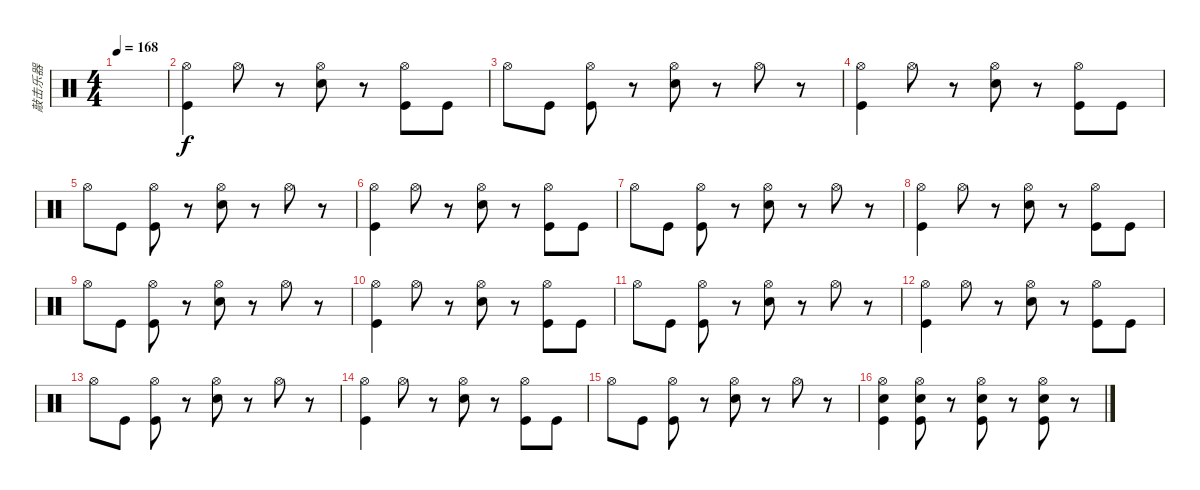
\track ("敲击乐器" "敲击乐器") {instrument percussion}
\staff {score}
\articulation defaults
\ts (4 4)
\tempo 168
\clef neutral
\ks c
|
("Hi-Hat (open)" "Kick (hit)").4 "Hi-Hat (open)".8 r.8 ("Hi-Hat (open)" "Snare (hit) 2").8 r.8 ("Hi-Hat (open)" "Kick (hit)").8 "Kick (hit)".8 |
"Hi-Hat (open)".8 "Kick (hit)".8 ("Hi-Hat (open)" "Kick (hit)").8 r.8 ("Hi-Hat (open)" "Snare (hit) 2").8 r.8 "Hi-Hat (open)".8 r.8 |
("Hi-Hat (open)" "Kick (hit)").4 "Hi-Hat (open)".8 r.8 ("Hi-Hat (open)" "Snare (hit) 2").8 r.8 ("Hi-Hat (open)" "Kick (hit)").8 "Kick (hit)".8 |
"Hi-Hat (open)".8 "Kick (hit)".8 ("Hi-Hat (open)" "Kick (hit)").8 r.8 ("Hi-Hat (open)" "Snare (hit) 2").8 r.8 "Hi-Hat (open)".8 r.8 |
("Hi-Hat (open)" "Kick (hit)").4 "Hi-Hat (open)".8 r.8 ("Hi-Hat (open)" "Snare (hit) 2").8 r.8 ("Hi-Hat (open)" "Kick (hit)").8 "Kick (hit)".8 |
"Hi-Hat (open)".8 "Kick (hit)".8 ("Hi-Hat (open)" "Kick (hit)").8 r.8 ("Hi-Hat (open)" "Snare (hit) 2").8 r.8 "Hi-Hat (open)".8 r.8 |
("Hi-Hat (open)" "Kick (hit)").4 "Hi-Hat (open)".8 r.8 ("Hi-Hat (open)" "Snare (hit) 2").8 r.8 ("Hi-Hat (open)" "Kick (hit)").8 "Kick (hit)".8 |
"Hi-Hat (open)".8 "Kick (hit)".8 ("Hi-Hat (open)" "Kick (hit)").8 r.8 ("Hi-Hat (open)" "Snare (hit) 2").8 r.8 "Hi-Hat (open)".8 r.8 |
("Hi-Hat (open)" "Kick (hit)").4 "Hi-Hat (open)".8 r.8 ("Hi-Hat (open)" "Snare (hit) 2").8 r.8 ("Hi-Hat (open)" "Kick (hit)").8 "Kick (hit)".8 |
"Hi-Hat (open)".8 "Kick (hit)".8 ("Hi-Hat (open)" "Kick (hit)").8 r.8 ("Hi-Hat (open)" "Snare (hit) 2").8 r.8 "Hi-Hat (open)".8 r.8 |
("Hi-Hat (open)" "Kick (hit)").4 "Hi-Hat (open)".8 r.8 ("Hi-Hat (open)" "Snare (hit) 2").8 r.8 ("Hi-Hat (open)" "Kick (hit)").8 "Kick (hit)".8 |
"Hi-Hat (open)".8 "Kick (hit)".8 ("Hi-Hat (open)" "Kick (hit)").8 r.8 ("Hi-Hat (open)" "Snare (hit) 2").8 r.8 "Hi-Hat (open)".8 r.8 |
("Hi-Hat (open)" "Kick (hit)").4 "Hi-Hat (open)".8 r.8 ("Hi-Hat (open)" "Snare (hit) 2").8 r.8 ("Hi-Hat (open)" "Kick (hit)").8 "Kick (hit)".8 |
"Hi-Hat (open)".8 "Kick (hit)".8 ("Hi-Hat (open)" "Kick (hit)").8 r.8 ("Hi-Hat (open)" "Snare (hit) 2").8 r.8 "Hi-Hat (open)".8 r.8 |
("Hi-Hat (open)" "Snare (hit) 2" "Kick (hit)").4 ("Hi-Hat (open)" "Snare (hit) 2" "Kick (hit)").8 r.8 ("Hi-Hat (open)" "Snare (hit) 2" "Kick (hit)").8 r.8 ("Hi-Hat (open)" "Snare (hit) 2" "Kick (hit)").8 r.8
